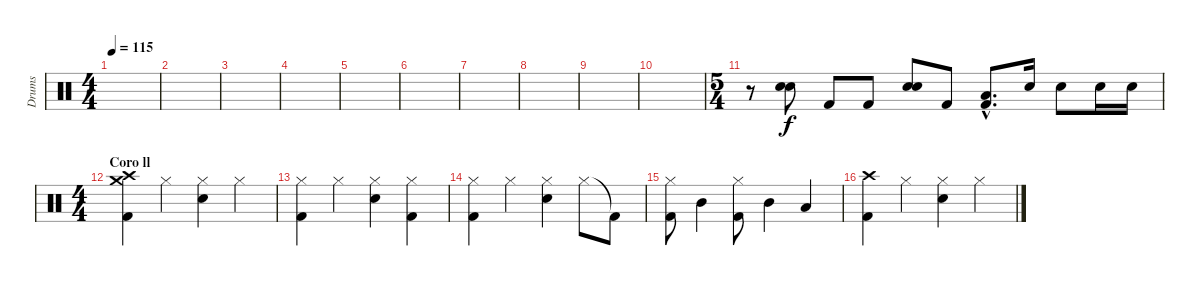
\track ("Drums" "Drums") {instrument percussion}
\staff {score}
\articulation defaults
\ts (4 4)
\tempo 115
\clef neutral
\ks c
|
|
|
|
|
|
|
|
|
|
\ts (5 4)
r.8 ("Snare (hit) 2" "Snare (hit) 2").8 "Kick (hit) 2".8 "Kick (hit) 2".8 ("Snare (hit) 2" "Snare (hit) 2").8 "Kick (hit) 2".8 ("Low Tom (hit)"{hac} "Kick (hit) 2"{hac}).8{d} "Snare (hit) 2".16 "Snare (hit) 2".8 "Snare (hit) 2".16 "Snare (hit) 2".16 |
\ts (4 4)
\section ("" "Coro ll")
("Crash high (hit)" "Crash medium (hit)" "Kick (hit) 2").4{volume 12} "Hi-Hat (closed)".4 ("Hi-Hat (closed)" "Snare (hit) 2").4 "Hi-Hat (closed)".4 |
("Hi-Hat (closed)" "Kick (hit) 2").4 "Hi-Hat (closed)".4 ("Hi-Hat (closed)" "Snare (hit) 2").4 ("Hi-Hat (closed)" "Kick (hit) 2").4 |
("Hi-Hat (closed)" "Kick (hit) 2").4 "Hi-Hat (closed)".4 ("Hi-Hat (closed)" "Snare (hit) 2").4 "Hi-Hat (closed)".8 "Kick (hit) 2"{t}.8 |
("Hi-Hat (closed)" "Kick (hit) 2").8 "Mid Tom (hit)".4 ("Hi-Hat (closed)" "Kick (hit) 2").8 "Mid Tom (hit)".4 "Low Tom (hit)".4 |
("Crash high (hit)" "Kick (hit) 2").4 "Hi-Hat (closed)".4 ("Hi-Hat (closed)" "Snare (hit) 2").4 "Hi-Hat (closed)".4
